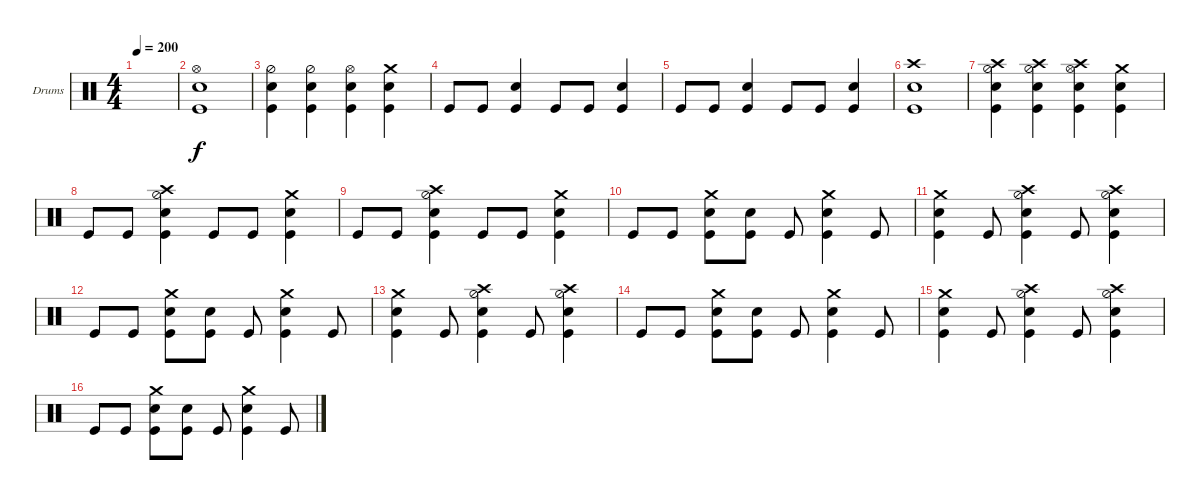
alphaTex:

\bracketExtendMode groupsimilarinstruments
\firstSystemTrackNameOrientation horizontal
\otherSystemsTrackNameOrientation horizontal
\track ("Drumkit" "Drums") {instrument percussion}
\staff {score}
\articulation defaults
\ts (4 4)
\tempo 200
\clef neutral
\ks c
|
("Kick (hit)" "Snare (hit) 2" "Hi-Hat (open)").1 |
("Kick (hit)" "Snare (hit) 2" "Hi-Hat (half)").4 ("Kick (hit)" "Snare (hit) 2" "Hi-Hat (half)").4 ("Kick (hit)" "Snare (hit) 2" "Hi-Hat (open)").4 ("Kick (hit)" "Snare (hit) 2" "Crash medium (hit)").4 |
"Kick (hit)".8 "Kick (hit)".8 ("Kick (hit)" "Snare (hit) 2").4 "Kick (hit)".8 "Kick (hit)".8 ("Kick (hit)" "Snare (hit) 2").4 |
"Kick (hit)".8 "Kick (hit)".8 ("Kick (hit)" "Snare (hit) 2").4 "Kick (hit)".8 "Kick (hit)".8 ("Kick (hit)" "Snare (hit) 2").4 |
("Kick (hit)" "Snare (hit) 2" "Crash high (hit)").1 |
("Kick (hit)" "Snare (hit) 2" "Hi-Hat (half)" "Crash high (hit)").4 ("Kick (hit)" "Snare (hit) 2" "Hi-Hat (half)" "Crash high (hit)").4 ("Kick (hit)" "Snare (hit) 2" "Hi-Hat (open)" "Crash high (hit)").4 ("Kick (hit)" "Snare (hit) 2" "Crash medium (hit)").4 |
"Kick (hit)".8 "Kick (hit)".8 ("Kick (hit)" "Snare (hit) 2" "Hi-Hat (half)" "Crash high (hit)").4 "Kick (hit)".8 "Kick (hit)".8 ("Kick (hit)" "Snare (hit) 2" "Crash medium (hit)").4 |
"Kick (hit)".8 "Kick (hit)".8 ("Kick (hit)" "Snare (hit) 2" "Hi-Hat (half)" "Crash high (hit)").4 "Kick (hit)".8 "Kick (hit)".8 ("Kick (hit)" "Snare (hit) 2" "Crash medium (hit)").4 |
"Kick (hit)".8 "Kick (hit)".8 ("Kick (hit)" "Snare (hit) 2" "Crash medium (hit)").8 ("Kick (hit)" "Snare (hit) 2").8 "Kick (hit)".8 ("Kick (hit)" "Snare (hit) 2" "Crash medium (hit)").4 "Kick (hit)".8 |
("Kick (hit)" "Snare (hit) 2" "Crash medium (hit)").4 "Kick (hit)".8 ("Kick (hit)" "Snare (hit) 2" "Hi-Hat (half)" "Crash high (hit)").4 "Kick (hit)".8 ("Kick (hit)" "Snare (hit) 2" "Hi-Hat (half)" "Crash high (hit)").4 |
"Kick (hit)".8 "Kick (hit)".8 ("Kick (hit)" "Snare (hit) 2" "Crash medium (hit)").8 ("Kick (hit)" "Snare (hit) 2").8 "Kick (hit)".8 ("Kick (hit)" "Snare (hit) 2" "Crash medium (hit)").4 "Kick (hit)".8 |
("Kick (hit)" "Snare (hit) 2" "Crash medium (hit)").4 "Kick (hit)".8 ("Kick (hit)" "Snare (hit) 2" "Hi-Hat (half)" "Crash high (hit)").4 "Kick (hit)".8 ("Kick (hit)" "Snare (hit) 2" "Hi-Hat (half)" "Crash high (hit)").4 |
"Kick (hit)".8 "Kick (hit)".8 ("Kick (hit)" "Snare (hit) 2" "Crash medium (hit)").8 ("Kick (hit)" "Snare (hit) 2").8 "Kick (hit)".8 ("Kick (hit)" "Snare (hit) 2" "Crash medium (hit)").4 "Kick (hit)".8 |
("Kick (hit)" "Snare (hit) 2" "Crash medium (hit)").4 "Kick (hit)".8 ("Kick (hit)" "Snare (hit) 2" "Hi-Hat (half)" "Crash high (hit)").4 "Kick (hit)".8 ("Kick (hit)" "Snare (hit) 2" "Hi-Hat (half)" "Crash high (hit)").4 |
"Kick (hit)".8 "Kick (hit)".8 ("Kick (hit)" "Snare (hit) 2" "Crash medium (hit)").8 ("Kick (hit)" "Snare (hit) 2").8 "Kick (hit)".8 ("Kick (hit)" "Snare (hit) 2" "Crash medium (hit)").4 "Kick (hit)".8
